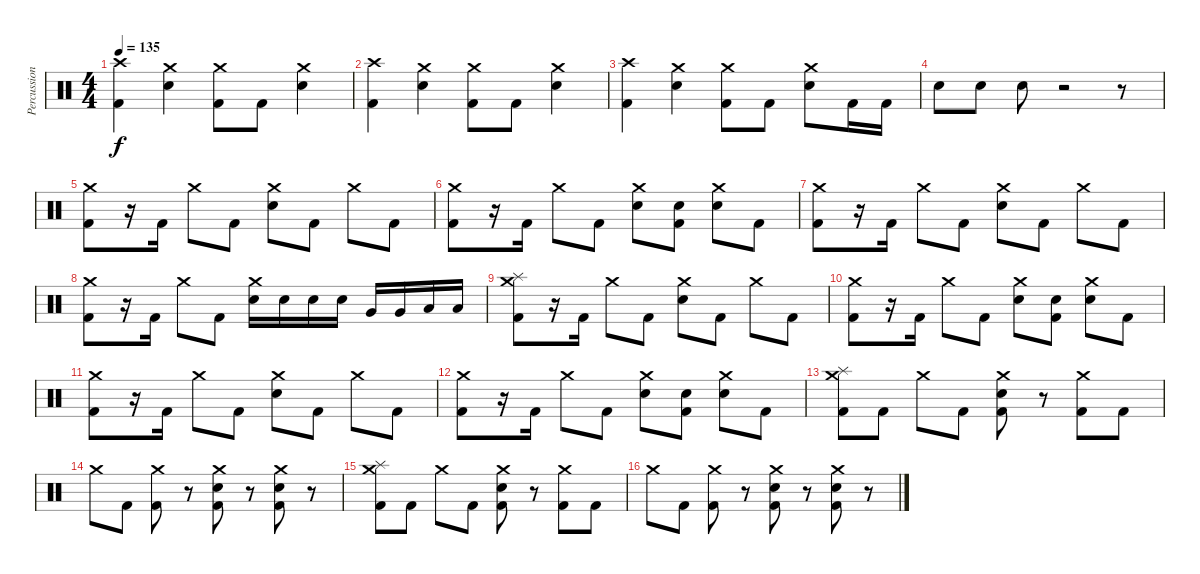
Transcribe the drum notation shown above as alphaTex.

\track ("Percussion" "Percussion") {instrument percussion}
\staff {score}
\articulation defaults
\ts (4 4)
\tempo 135
\clef neutral
\ks c
("Kick (hit) 2" "Crash high (hit)").4{dy f} ("Snare (hit) 2" "Crash medium (hit)").4 ("Kick (hit) 2" "Crash medium (hit)").8 "Kick (hit) 2".8 ("Snare (hit) 2" "Crash medium (hit)").4 |
("Kick (hit) 2" "Crash high (hit)").4 ("Snare (hit) 2" "Crash medium (hit)").4 ("Kick (hit) 2" "Crash medium (hit)").8 "Kick (hit) 2".8 ("Snare (hit) 2" "Crash medium (hit)").4 |
("Kick (hit) 2" "Crash high (hit)").4 ("Snare (hit) 2" "Crash medium (hit)").4 ("Kick (hit) 2" "Crash medium (hit)").8 "Kick (hit) 2".8 ("Snare (hit) 2" "Crash medium (hit)").8 "Kick (hit) 2".16 "Kick (hit) 2".16 |
"Snare (hit) 2".8 "Snare (hit) 2".8 "Snare (hit) 2".8 r.2 r.8 |
("Kick (hit) 2" "Crash medium (hit)").8 r.16 "Kick (hit) 2".16 "Crash medium (hit)".8 "Kick (hit) 2".8 ("Snare (hit) 2" "Crash medium (hit)").8 "Kick (hit) 2".8 "Crash medium (hit)".8 "Kick (hit) 2".8 |
("Kick (hit) 2" "Crash medium (hit)").8 r.16 "Kick (hit) 2".16 "Crash medium (hit)".8 "Kick (hit) 2".8 ("Snare (hit) 2" "Crash medium (hit)").8 ("Kick (hit) 2" "Snare (hit) 2").8 ("Snare (hit) 2" "Crash medium (hit)").8 "Kick (hit) 2".8 |
("Kick (hit) 2" "Crash medium (hit)").8 r.16 "Kick (hit) 2".16 "Crash medium (hit)".8 "Kick (hit) 2".8 ("Snare (hit) 2" "Crash medium (hit)").8 "Kick (hit) 2".8 "Crash medium (hit)".8 "Kick (hit) 2".8 |
("Kick (hit) 2" "Crash medium (hit)").8 r.16 "Kick (hit) 2".16 "Crash medium (hit)".8 "Kick (hit) 2".8 ("Snare (hit) 2" "Crash medium (hit)").16 "Snare (hit) 2".16 "Snare (hit) 2".16 "Snare (hit) 2".16 "Very Low Tom (hit)".16 "Very Low Tom (hit)".16 "Low Floor Tom (hit)".16 "Low Floor Tom (hit)".16 |
("Kick (hit) 2" "Crash medium (hit)" "Splash (hit)").8 r.16 "Kick (hit) 2".16 "Crash medium (hit)".8 "Kick (hit) 2".8 ("Snare (hit) 2" "Crash medium (hit)").8 "Kick (hit) 2".8 "Crash medium (hit)".8 "Kick (hit) 2".8 |
("Kick (hit) 2" "Crash medium (hit)").8 r.16 "Kick (hit) 2".16 "Crash medium (hit)".8 "Kick (hit) 2".8 ("Snare (hit) 2" "Crash medium (hit)").8 ("Kick (hit) 2" "Snare (hit) 2").8 ("Snare (hit) 2" "Crash medium (hit)").8 "Kick (hit) 2".8 |
("Kick (hit) 2" "Crash medium (hit)").8 r.16 "Kick (hit) 2".16 "Crash medium (hit)".8 "Kick (hit) 2".8 ("Snare (hit) 2" "Crash medium (hit)").8 "Kick (hit) 2".8 "Crash medium (hit)".8 "Kick (hit) 2".8 |
("Kick (hit) 2" "Crash medium (hit)").8 r.16 "Kick (hit) 2".16 "Crash medium (hit)".8 "Kick (hit) 2".8 ("Snare (hit) 2" "Crash medium (hit)").8 ("Kick (hit) 2" "Snare (hit) 2").8 ("Snare (hit) 2" "Crash medium (hit)").8 "Kick (hit) 2".8 |
("Kick (hit) 2" "Crash medium (hit)" "Splash (hit)").8 "Kick (hit) 2".8 "Crash medium (hit)".8 "Kick (hit) 2".8 ("Kick (hit) 2" "Snare (hit) 2" "Crash medium (hit)").8 r.8 ("Kick (hit) 2" "Crash medium (hit)").8 "Kick (hit) 2".8 |
"Crash medium (hit)".8 "Kick (hit) 2".8 ("Kick (hit) 2" "Crash medium (hit)").8 r.8 ("Kick (hit) 2" "Snare (hit) 2" "Crash medium (hit)").8 r.8 ("Kick (hit) 2" "Snare (hit) 2" "Crash medium (hit)").8 r.8 |
("Kick (hit) 2" "Crash medium (hit)" "Splash (hit)").8 "Kick (hit) 2".8 "Crash medium (hit)".8 "Kick (hit) 2".8 ("Kick (hit) 2" "Snare (hit) 2" "Crash medium (hit)").8 r.8 ("Kick (hit) 2" "Crash medium (hit)").8 "Kick (hit) 2".8 |
"Crash medium (hit)".8 "Kick (hit) 2".8 ("Kick (hit) 2" "Crash medium (hit)").8 r.8 ("Kick (hit) 2" "Snare (hit) 2" "Crash medium (hit)").8 r.8 ("Kick (hit) 2" "Snare (hit) 2" "Crash medium (hit)").8 r.8
